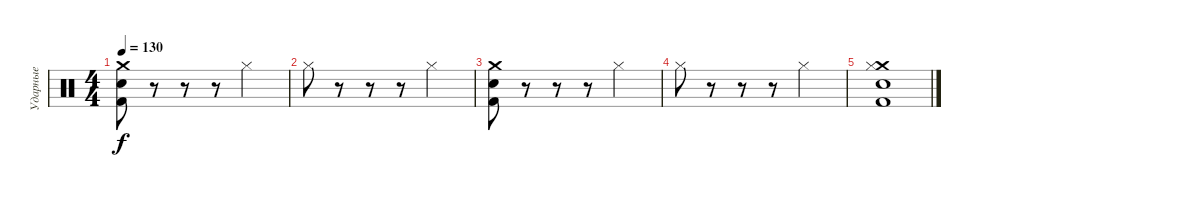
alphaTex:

\track ("Ударные" "Ударные") {instrument percussion}
\staff {score}
\articulation defaults
\ts (4 4)
\tempo 130
\clef neutral
\ks c
("Crash medium (hit)" "Electric Snare (hit)" "Kick (hit) 2").8{dy f} r.8 r.8 r.8 "Hi-Hat (closed)".2 |
"Hi-Hat (closed)".8 r.8 r.8 r.8 "Hi-Hat (closed)".2 |
("Crash medium (hit)" "Electric Snare (hit)" "Kick (hit) 2").8 r.8 r.8 r.8 "Hi-Hat (closed)".2 |
"Hi-Hat (closed)".8 r.8 r.8 r.8 "Hi-Hat (closed)".2 |
("Crash medium (hit)" "Hi-Hat (closed)" "Electric Snare (hit)" "Kick (hit) 2").1
